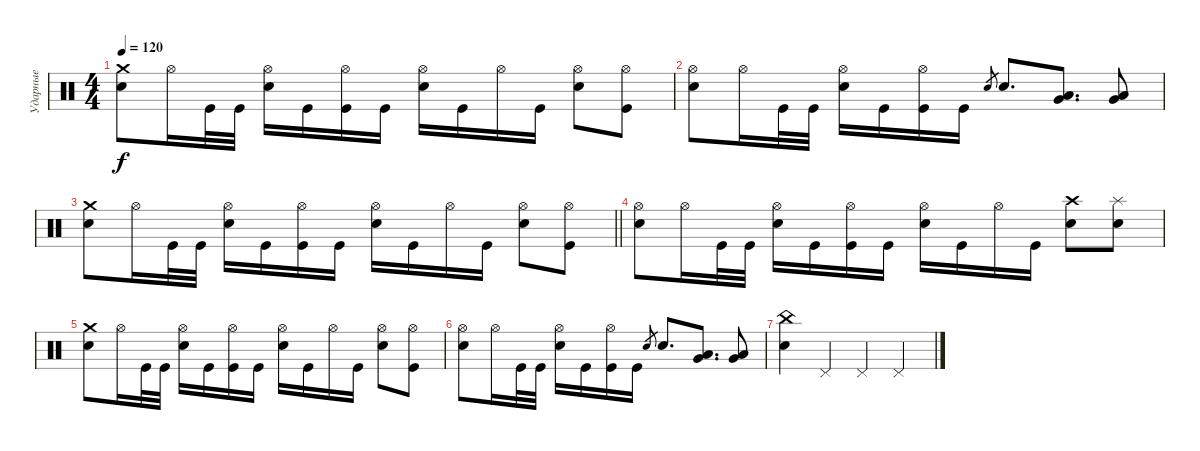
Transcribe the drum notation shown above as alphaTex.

\track ("Ударные" "Ударные") {instrument percussion}
\staff {score}
\articulation defaults
\ts (4 4)
\tempo 120
\clef neutral
\ks c
("Crash medium (hit)" "Electric Snare (hit)").8{dy f} "Hi-Hat (open)".16 "Kick (hit)".32 "Kick (hit)".32 ("Hi-Hat (open)" "Electric Snare (hit)").16 "Kick (hit)".16 ("Hi-Hat (open)" "Kick (hit)").16 "Kick (hit)".16 ("Hi-Hat (open)" "Electric Snare (hit)").16 "Kick (hit)".16 "Hi-Hat (open)".16 "Kick (hit)".16 ("Hi-Hat (open)" "Electric Snare (hit)").8 ("Hi-Hat (open)" "Kick (hit)").8 |
("Hi-Hat (open)" "Electric Snare (hit)").8 "Hi-Hat (open)".16 "Kick (hit)".32 "Kick (hit)".32 ("Hi-Hat (open)" "Electric Snare (hit)").16 "Kick (hit)".16 ("Hi-Hat (open)" "Kick (hit)").16 "Kick (hit)".16 "Electric Snare (hit)".8{gr} "Electric Snare (hit)".8{d} ("Very Low Tom (hit)" "Low Floor Tom (hit)").8{d} ("Very Low Tom (hit)" "Low Floor Tom (hit)").8 |
\barLineRight lightlight
("Crash medium (hit)" "Electric Snare (hit)").8 "Hi-Hat (open)".16 "Kick (hit)".32 "Kick (hit)".32 ("Hi-Hat (open)" "Electric Snare (hit)").16 "Kick (hit)".16 ("Hi-Hat (open)" "Kick (hit)").16 "Kick (hit)".16 ("Hi-Hat (open)" "Electric Snare (hit)").16 "Kick (hit)".16 "Hi-Hat (open)".16 "Kick (hit)".16 ("Hi-Hat (open)" "Electric Snare (hit)").8 ("Hi-Hat (open)" "Kick (hit)").8 |
("Hi-Hat (open)" "Electric Snare (hit)").8 "Hi-Hat (open)".16 "Kick (hit)".32 "Kick (hit)".32 ("Hi-Hat (open)" "Electric Snare (hit)").16 "Kick (hit)".16 ("Hi-Hat (open)" "Kick (hit)").16 "Kick (hit)".16 ("Hi-Hat (open)" "Electric Snare (hit)").16 "Kick (hit)".16 "Hi-Hat (open)".16 "Kick (hit)".16 ("Crash high (hit)" "Electric Snare (hit)").8 ("Splash (hit)" "Electric Snare (hit)").8 |
("Crash medium (hit)" "Electric Snare (hit)").8 "Hi-Hat (open)".16 "Kick (hit)".32 "Kick (hit)".32 ("Hi-Hat (open)" "Electric Snare (hit)").16 "Kick (hit)".16 ("Hi-Hat (open)" "Kick (hit)").16 "Kick (hit)".16 ("Hi-Hat (open)" "Electric Snare (hit)").16 "Kick (hit)".16 "Hi-Hat (open)".16 "Kick (hit)".16 ("Hi-Hat (open)" "Electric Snare (hit)").8 ("Hi-Hat (open)" "Kick (hit)").8 |
("Hi-Hat (open)" "Electric Snare (hit)").8 "Hi-Hat (open)".16 "Kick (hit)".32 "Kick (hit)".32 ("Hi-Hat (open)" "Electric Snare (hit)").16 "Kick (hit)".16 ("Hi-Hat (open)" "Kick (hit)").16 "Kick (hit)".16 "Electric Snare (hit)".8{gr} "Electric Snare (hit)".8{d} ("Very Low Tom (hit)" "Low Floor Tom (hit)").8{d} ("Very Low Tom (hit)" "Low Floor Tom (hit)").8 |
("China (hit)" "Electric Snare (hit)").4 "Pedal Hi-Hat (hit)".4 "Pedal Hi-Hat (hit)".4 "Pedal Hi-Hat (hit)".4
